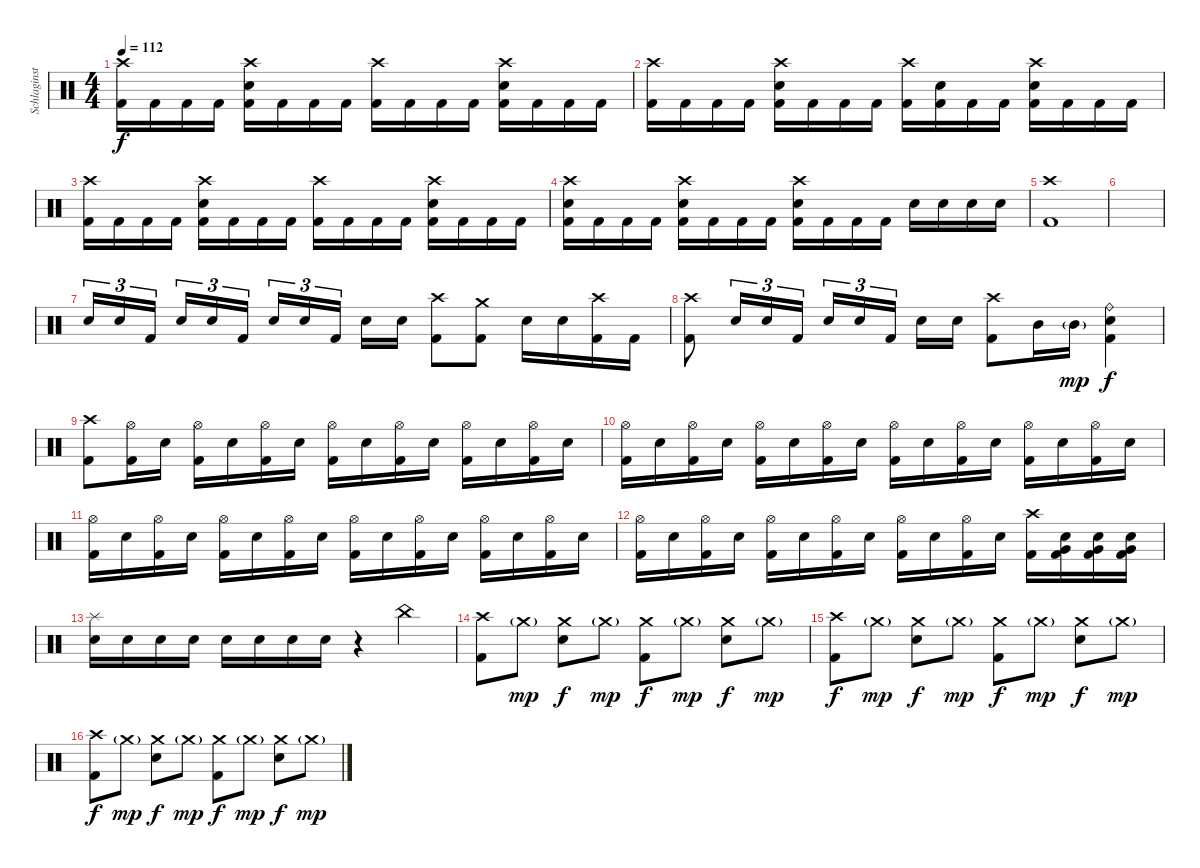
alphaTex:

\track ("Schlaginstrumente - Auswahl" "Schlaginst") {instrument percussion}
\staff {score}
\articulation defaults
\ts (4 4)
\tempo 112
\clef neutral
\ks c
("Crash high (hit)" "Kick (hit) 2").16{dy f} "Kick (hit) 2".16 "Kick (hit) 2".16 "Kick (hit) 2".16 ("Crash high (hit)" "Snare (hit) 2" "Kick (hit) 2").16 "Kick (hit) 2".16 "Kick (hit) 2".16 "Kick (hit) 2".16 ("Crash high (hit)" "Kick (hit) 2").16 "Kick (hit) 2".16 "Kick (hit) 2".16 "Kick (hit) 2".16 ("Crash high (hit)" "Snare (hit) 2" "Kick (hit) 2").16 "Kick (hit) 2".16 "Kick (hit) 2".16 "Kick (hit) 2".16 |
("Crash high (hit)" "Kick (hit) 2").16 "Kick (hit) 2".16 "Kick (hit) 2".16 "Kick (hit) 2".16 ("Crash high (hit)" "Snare (hit) 2" "Kick (hit) 2").16 "Kick (hit) 2".16 "Kick (hit) 2".16 "Kick (hit) 2".16 ("Crash high (hit)" "Kick (hit) 2").16 ("Snare (hit) 2" "Kick (hit) 2").16 "Kick (hit) 2".16 "Kick (hit) 2".16 ("Crash high (hit)" "Snare (hit) 2" "Kick (hit) 2").16 "Kick (hit) 2".16 "Kick (hit) 2".16 "Kick (hit) 2".16 |
("Crash high (hit)" "Kick (hit) 2").16 "Kick (hit) 2".16 "Kick (hit) 2".16 "Kick (hit) 2".16 ("Crash high (hit)" "Snare (hit) 2" "Kick (hit) 2").16 "Kick (hit) 2".16 "Kick (hit) 2".16 "Kick (hit) 2".16 ("Crash high (hit)" "Kick (hit) 2").16 "Kick (hit) 2".16 "Kick (hit) 2".16 "Kick (hit) 2".16 ("Crash high (hit)" "Snare (hit) 2" "Kick (hit) 2").16 "Kick (hit) 2".16 "Kick (hit) 2".16 "Kick (hit) 2".16 |
("Crash high (hit)" "Snare (hit) 2" "Kick (hit) 2").16 "Kick (hit) 2".16 "Kick (hit) 2".16 "Kick (hit) 2".16 ("Crash high (hit)" "Snare (hit) 2" "Kick (hit) 2").16 "Kick (hit) 2".16 "Kick (hit) 2".16 "Kick (hit) 2".16 ("Crash high (hit)" "Snare (hit) 2" "Kick (hit) 2").16 "Kick (hit) 2".16 "Kick (hit) 2".16 "Kick (hit) 2".16 "Snare (hit) 2".16 "Snare (hit) 2".16 "Snare (hit) 2".16 "Snare (hit) 2".16 |
("Crash high (hit)" "Kick (hit) 2").1 |
|
"Snare (hit) 2".16{tu (3 2)} "Snare (hit) 2".16{tu (3 2)} "Kick (hit) 2".16{tu (3 2) beam splitsecondary} "Snare (hit) 2".16{tu (3 2)} "Snare (hit) 2".16{tu (3 2)} "Kick (hit) 2".16{tu (3 2)} "Snare (hit) 2".16{tu (3 2)} "Snare (hit) 2".16{tu (3 2)} "Kick (hit) 2".16{tu (3 2) beam splitsecondary} "Snare (hit) 2".16 "Snare (hit) 2".16 ("Crash high (hit)" "Kick (hit) 2").8 ("Crash medium (hit)" "Kick (hit) 2").8 "Snare (hit) 2".16 "Snare (hit) 2".16 ("Crash high (hit)" "Kick (hit) 2").16 "Kick (hit) 2".16 |
("Crash high (hit)" "Kick (hit) 2").8 "Snare (hit) 2".16{tu (3 2)} "Snare (hit) 2".16{tu (3 2)} "Kick (hit) 2".16{tu (3 2)} "Snare (hit) 2".16{tu (3 2)} "Snare (hit) 2".16{tu (3 2)} "Kick (hit) 2".16{tu (3 2) beam splitsecondary} "Snare (hit) 2".16 "Snare (hit) 2".16 ("Crash high (hit)" "Kick (hit) 2").8 "Mid Tom (hit)".16 "Mid Tom (hit)"{g}.16{dy mp} ("Ride (bell)" "Snare (hit) 2" "Kick (hit) 2").4{dy f} |
("Crash high (hit)" "Kick (hit) 2").8 ("Hi-Hat (open)" "Kick (hit) 2").16 "Snare (hit) 2".16 ("Hi-Hat (open)" "Kick (hit) 2").16 "Snare (hit) 2".16 ("Hi-Hat (open)" "Kick (hit) 2").16 "Snare (hit) 2".16 ("Hi-Hat (open)" "Kick (hit) 2").16 "Snare (hit) 2".16 ("Hi-Hat (open)" "Kick (hit) 2").16 "Snare (hit) 2".16 ("Hi-Hat (open)" "Kick (hit) 2").16 "Snare (hit) 2".16 ("Hi-Hat (open)" "Kick (hit) 2").16 "Snare (hit) 2".16 |
("Hi-Hat (open)" "Kick (hit) 2").16 "Snare (hit) 2".16 ("Hi-Hat (open)" "Kick (hit) 2").16 "Snare (hit) 2".16 ("Hi-Hat (open)" "Kick (hit) 2").16 "Snare (hit) 2".16 ("Hi-Hat (open)" "Kick (hit) 2").16 "Snare (hit) 2".16 ("Hi-Hat (open)" "Kick (hit) 2").16 "Snare (hit) 2".16 ("Hi-Hat (open)" "Kick (hit) 2").16 "Snare (hit) 2".16 ("Hi-Hat (open)" "Kick (hit) 2").16 "Snare (hit) 2".16 ("Hi-Hat (open)" "Kick (hit) 2").16 "Snare (hit) 2".16 |
("Hi-Hat (open)" "Kick (hit) 2").16 "Snare (hit) 2".16 ("Hi-Hat (open)" "Kick (hit) 2").16 "Snare (hit) 2".16 ("Hi-Hat (open)" "Kick (hit) 2").16 "Snare (hit) 2".16 ("Hi-Hat (open)" "Kick (hit) 2").16 "Snare (hit) 2".16 ("Hi-Hat (open)" "Kick (hit) 2").16 "Snare (hit) 2".16 ("Hi-Hat (open)" "Kick (hit) 2").16 "Snare (hit) 2".16 ("Hi-Hat (open)" "Kick (hit) 2").16 "Snare (hit) 2".16 ("Hi-Hat (open)" "Kick (hit) 2").16 "Snare (hit) 2".16 |
("Hi-Hat (open)" "Kick (hit) 2").16 "Snare (hit) 2".16 ("Hi-Hat (open)" "Kick (hit) 2").16 "Snare (hit) 2".16 ("Hi-Hat (open)" "Kick (hit) 2").16 "Snare (hit) 2".16 ("Hi-Hat (open)" "Kick (hit) 2").16 "Snare (hit) 2".16 ("Hi-Hat (open)" "Kick (hit) 2").16 "Snare (hit) 2".16 ("Hi-Hat (open)" "Kick (hit) 2").16 "Snare (hit) 2".16 ("Crash high (hit)" "Kick (hit) 2").16 ("Snare (hit) 2" "Very Low Tom (hit)" "Kick (hit) 2").16 ("Snare (hit) 2" "Very Low Tom (hit)" "Kick (hit) 2").16 ("Snare (hit) 2" "Very Low Tom (hit)" "Kick (hit) 2").16 |
("Splash (hit)" "Snare (hit) 2").16 "Snare (hit) 2".16 "Snare (hit) 2".16 "Snare (hit) 2".16 "Snare (hit) 2".16 "Snare (hit) 2".16 "Snare (hit) 2".16 "Snare (hit) 2".16 r.4 "China (hit)".4 |
("Crash high (hit)" "Kick (hit) 2").8 "Crash medium (hit)"{g}.8{dy mp} ("Crash medium (hit)" "Snare (hit) 2").8{dy f} "Crash medium (hit)"{g}.8{dy mp} ("Crash medium (hit)" "Kick (hit) 2").8{dy f} "Crash medium (hit)"{g}.8{dy mp} ("Crash medium (hit)" "Snare (hit) 2").8{dy f} "Crash medium (hit)"{g}.8{dy mp} |
("Crash high (hit)" "Kick (hit) 2").8{dy f} "Crash medium (hit)"{g}.8{dy mp} ("Crash medium (hit)" "Snare (hit) 2").8{dy f} "Crash medium (hit)"{g}.8{dy mp} ("Crash medium (hit)" "Kick (hit) 2").8{dy f} "Crash medium (hit)"{g}.8{dy mp} ("Crash medium (hit)" "Snare (hit) 2").8{dy f} "Crash medium (hit)"{g}.8{dy mp} |
("Crash high (hit)" "Kick (hit) 2").8{dy f} "Crash medium (hit)"{g}.8{dy mp} ("Crash medium (hit)" "Snare (hit) 2").8{dy f} "Crash medium (hit)"{g}.8{dy mp} ("Crash medium (hit)" "Kick (hit) 2").8{dy f} "Crash medium (hit)"{g}.8{dy mp} ("Crash medium (hit)" "Snare (hit) 2").8{dy f} "Crash medium (hit)"{g}.8{dy mp}
